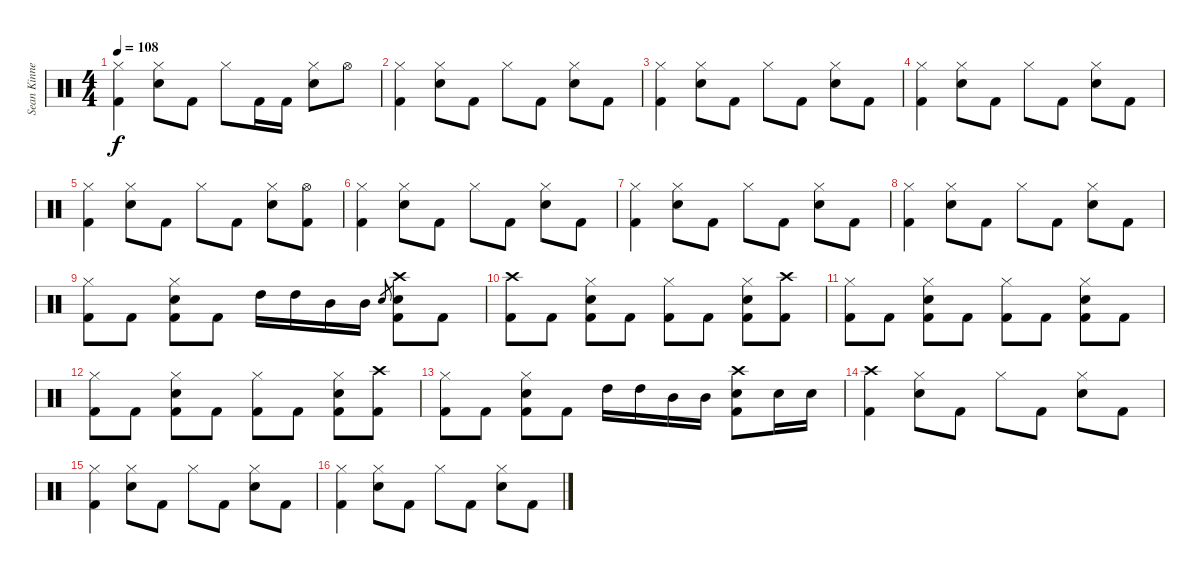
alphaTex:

\track ("Sean Kinney- Drums" "Sean Kinne") {instrument percussion}
\staff {score}
\articulation defaults
\ts (4 4)
\tempo 108
\clef neutral
\ks c
("Hi-Hat (closed)" "Kick (hit) 2").4{dy f} ("Hi-Hat (closed)" "Electric Snare (hit)").8 "Kick (hit) 2".8 "Hi-Hat (closed)".8 "Kick (hit) 2".16 "Kick (hit) 2".16 ("Hi-Hat (closed)" "Electric Snare (hit)").8 "Hi-Hat (open)".8 |
("Hi-Hat (closed)" "Kick (hit) 2").4 ("Hi-Hat (closed)" "Electric Snare (hit)").8 "Kick (hit) 2".8 "Hi-Hat (closed)".8 "Kick (hit) 2".8 ("Hi-Hat (closed)" "Electric Snare (hit)").8 "Kick (hit) 2".8 |
("Hi-Hat (closed)" "Kick (hit) 2").4 ("Hi-Hat (closed)" "Electric Snare (hit)").8 "Kick (hit) 2".8 "Hi-Hat (closed)".8 "Kick (hit) 2".8 ("Hi-Hat (closed)" "Electric Snare (hit)").8 "Kick (hit) 2".8 |
("Hi-Hat (closed)" "Kick (hit) 2").4 ("Hi-Hat (closed)" "Electric Snare (hit)").8 "Kick (hit) 2".8 "Hi-Hat (closed)".8 "Kick (hit) 2".8 ("Hi-Hat (closed)" "Electric Snare (hit)").8 "Kick (hit) 2".8 |
("Hi-Hat (closed)" "Kick (hit) 2").4 ("Hi-Hat (closed)" "Electric Snare (hit)").8 "Kick (hit) 2".8 "Hi-Hat (closed)".8 "Kick (hit) 2".8 ("Hi-Hat (closed)" "Electric Snare (hit)").8 ("Hi-Hat (open)" "Kick (hit) 2").8 |
("Hi-Hat (closed)" "Kick (hit) 2").4 ("Hi-Hat (closed)" "Electric Snare (hit)").8 "Kick (hit) 2".8 "Hi-Hat (closed)".8 "Kick (hit) 2".8 ("Hi-Hat (closed)" "Electric Snare (hit)").8 "Kick (hit) 2".8 |
("Hi-Hat (closed)" "Kick (hit) 2").4 ("Hi-Hat (closed)" "Electric Snare (hit)").8 "Kick (hit) 2".8 "Hi-Hat (closed)".8 "Kick (hit) 2".8 ("Hi-Hat (closed)" "Electric Snare (hit)").8 "Kick (hit) 2".8 |
("Hi-Hat (closed)" "Kick (hit) 2").4 ("Hi-Hat (closed)" "Electric Snare (hit)").8 "Kick (hit) 2".8 "Hi-Hat (closed)".8 "Kick (hit) 2".8 ("Hi-Hat (closed)" "Electric Snare (hit)").8 "Kick (hit) 2".8 |
("Hi-Hat (closed)" "Kick (hit) 2").8 "Kick (hit) 2".8 ("Hi-Hat (closed)" "Electric Snare (hit)" "Kick (hit) 2").8 "Kick (hit) 2".8 "High Tom (hit)".16 "High Tom (hit)".16 "Mid Tom (hit)".16 "Mid Tom (hit)".16 "Electric Snare (hit)".8{gr} ("Crash high (hit)" "Electric Snare (hit)" "Kick (hit) 2").8 "Kick (hit) 2".8 |
("Crash high (hit)" "Kick (hit) 2").8 "Kick (hit) 2".8 ("Hi-Hat (closed)" "Electric Snare (hit)" "Kick (hit) 2").8 "Kick (hit) 2".8 ("Hi-Hat (closed)" "Kick (hit) 2").8 "Kick (hit) 2".8 ("Hi-Hat (closed)" "Electric Snare (hit)" "Kick (hit) 2").8 ("Crash high (hit)" "Kick (hit) 2").8 |
("Hi-Hat (closed)" "Kick (hit) 2").8 "Kick (hit) 2".8 ("Hi-Hat (closed)" "Electric Snare (hit)" "Kick (hit) 2").8 "Kick (hit) 2".8 ("Hi-Hat (closed)" "Kick (hit) 2").8 "Kick (hit) 2".8 ("Hi-Hat (closed)" "Electric Snare (hit)" "Kick (hit) 2").8 "Kick (hit) 2".8 |
("Hi-Hat (closed)" "Kick (hit) 2").8 "Kick (hit) 2".8 ("Hi-Hat (closed)" "Electric Snare (hit)" "Kick (hit) 2").8 "Kick (hit) 2".8 ("Hi-Hat (closed)" "Kick (hit) 2").8 "Kick (hit) 2".8 ("Hi-Hat (closed)" "Electric Snare (hit)" "Kick (hit) 2").8 ("Crash high (hit)" "Kick (hit) 2").8 |
("Hi-Hat (closed)" "Kick (hit) 2").8 "Kick (hit) 2".8 ("Hi-Hat (closed)" "Electric Snare (hit)" "Kick (hit) 2").8 "Kick (hit) 2".8 "High Tom (hit)".16 "High Tom (hit)".16 "Mid Tom (hit)".16 "Mid Tom (hit)".16 ("Crash high (hit)" "Electric Snare (hit)" "Kick (hit) 2").8 "Electric Snare (hit)".16 "Electric Snare (hit)".16 |
("Crash high (hit)" "Kick (hit) 2").4 ("Hi-Hat (closed)" "Electric Snare (hit)").8 "Kick (hit) 2".8 "Hi-Hat (closed)".8 "Kick (hit) 2".8 ("Hi-Hat (closed)" "Electric Snare (hit)").8 "Kick (hit) 2".8 |
("Hi-Hat (closed)" "Kick (hit) 2").4 ("Hi-Hat (closed)" "Electric Snare (hit)").8 "Kick (hit) 2".8 "Hi-Hat (closed)".8 "Kick (hit) 2".8 ("Hi-Hat (closed)" "Electric Snare (hit)").8 "Kick (hit) 2".8 |
("Hi-Hat (closed)" "Kick (hit) 2").4 ("Hi-Hat (closed)" "Electric Snare (hit)").8 "Kick (hit) 2".8 "Hi-Hat (closed)".8 "Kick (hit) 2".8 ("Hi-Hat (closed)" "Electric Snare (hit)").8 "Kick (hit) 2".8
